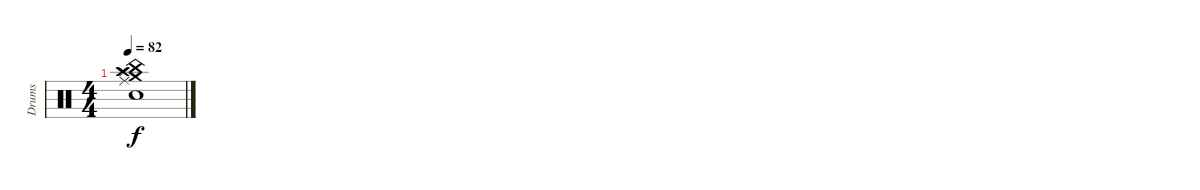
\track ("Drums" "Drums") {instrument percussion}
\staff {score}
\articulation defaults
\ts (4 4)
\tempo 82
\clef neutral
\ks c
("Crash medium (hit)" "Ride (middle)" "Crash high (hit)" "China (hit)" "Electric Snare (hit)" "Splash (hit)").1{dy f}
